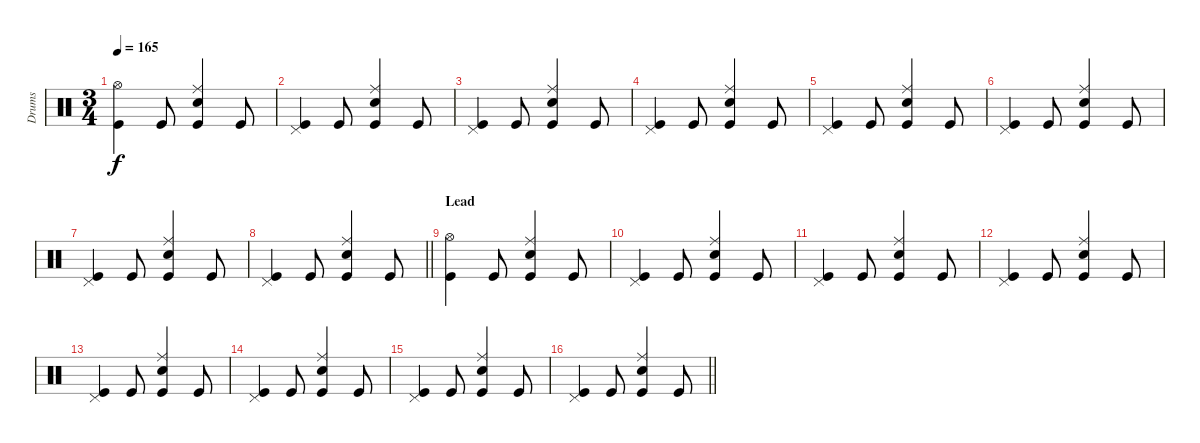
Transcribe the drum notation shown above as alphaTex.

\track ("Drums" "Drums") {instrument percussion}
\staff {score}
\articulation defaults
\ts (3 4)
\tempo 165
\clef neutral
\ks c
("Hi-Hat (open)" "Kick (hit)").4{dy f} "Kick (hit)".8 ("Ride (middle)" "Snare (hit) 2" "Kick (hit)").4 "Kick (hit)".8 |
("Pedal Hi-Hat (hit)" "Kick (hit)").4 "Kick (hit)".8 ("Ride (middle)" "Snare (hit) 2" "Kick (hit)").4 "Kick (hit)".8 |
("Pedal Hi-Hat (hit)" "Kick (hit)").4 "Kick (hit)".8 ("Ride (middle)" "Snare (hit) 2" "Kick (hit)").4 "Kick (hit)".8 |
("Pedal Hi-Hat (hit)" "Kick (hit)").4 "Kick (hit)".8 ("Ride (middle)" "Snare (hit) 2" "Kick (hit)").4 "Kick (hit)".8 |
("Pedal Hi-Hat (hit)" "Kick (hit)").4 "Kick (hit)".8 ("Ride (middle)" "Snare (hit) 2" "Kick (hit)").4 "Kick (hit)".8 |
("Pedal Hi-Hat (hit)" "Kick (hit)").4 "Kick (hit)".8 ("Ride (middle)" "Snare (hit) 2" "Kick (hit)").4 "Kick (hit)".8 |
("Pedal Hi-Hat (hit)" "Kick (hit)").4 "Kick (hit)".8 ("Ride (middle)" "Snare (hit) 2" "Kick (hit)").4 "Kick (hit)".8 |
\barLineRight lightlight
("Pedal Hi-Hat (hit)" "Kick (hit)").4 "Kick (hit)".8 ("Ride (middle)" "Snare (hit) 2" "Kick (hit)").4 "Kick (hit)".8 |
\section ("" "Lead")
("Hi-Hat (open)" "Kick (hit)").4 "Kick (hit)".8 ("Ride (middle)" "Snare (hit) 2" "Kick (hit)").4 "Kick (hit)".8 |
("Pedal Hi-Hat (hit)" "Kick (hit)").4 "Kick (hit)".8 ("Ride (middle)" "Snare (hit) 2" "Kick (hit)").4 "Kick (hit)".8 |
("Pedal Hi-Hat (hit)" "Kick (hit)").4 "Kick (hit)".8 ("Ride (middle)" "Snare (hit) 2" "Kick (hit)").4 "Kick (hit)".8 |
("Pedal Hi-Hat (hit)" "Kick (hit)").4 "Kick (hit)".8 ("Ride (middle)" "Snare (hit) 2" "Kick (hit)").4 "Kick (hit)".8 |
("Pedal Hi-Hat (hit)" "Kick (hit)").4 "Kick (hit)".8 ("Ride (middle)" "Snare (hit) 2" "Kick (hit)").4 "Kick (hit)".8 |
("Pedal Hi-Hat (hit)" "Kick (hit)").4 "Kick (hit)".8 ("Ride (middle)" "Snare (hit) 2" "Kick (hit)").4 "Kick (hit)".8 |
("Pedal Hi-Hat (hit)" "Kick (hit)").4 "Kick (hit)".8 ("Ride (middle)" "Snare (hit) 2" "Kick (hit)").4 "Kick (hit)".8 |
\barLineRight lightlight
("Pedal Hi-Hat (hit)" "Kick (hit)").4 "Kick (hit)".8 ("Ride (middle)" "Snare (hit) 2" "Kick (hit)").4 "Kick (hit)".8
